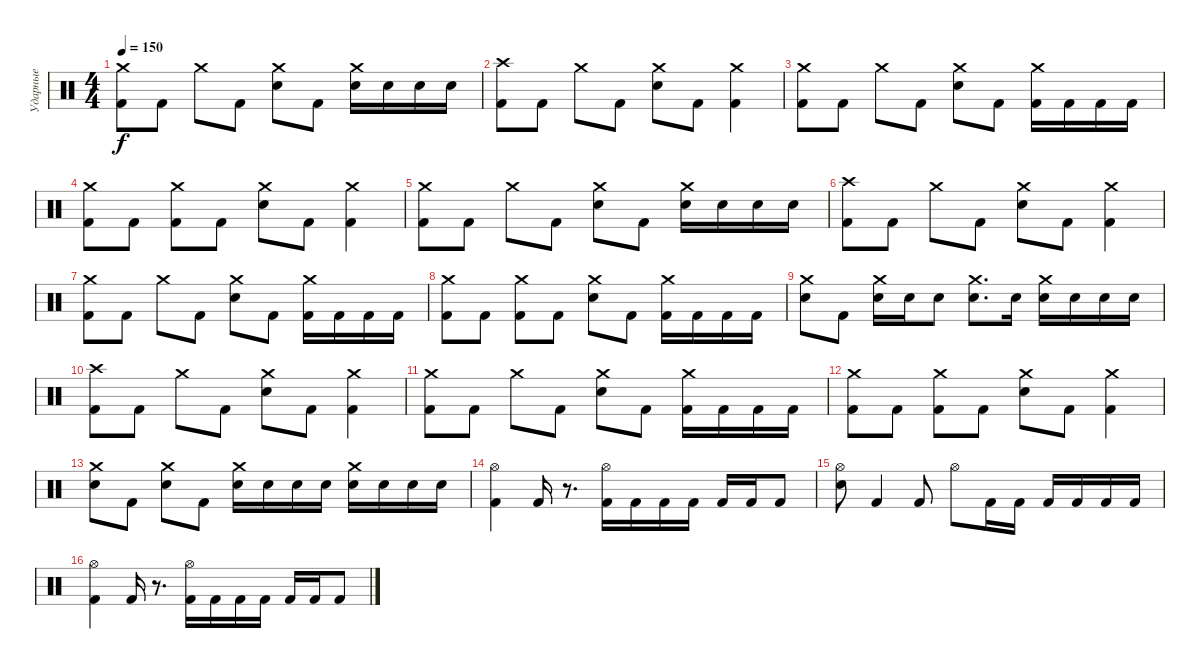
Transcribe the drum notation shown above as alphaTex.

\track ("Ударные" "Ударные") {instrument percussion}
\staff {score}
\articulation defaults
\ts (4 4)
\tempo 150
\clef neutral
\ks c
("Crash medium (hit)" "Kick (hit) 2").8{dy f} "Kick (hit) 2".8 "Crash medium (hit)".8 "Kick (hit) 2".8 ("Crash medium (hit)" "Electric Snare (hit)").8 "Kick (hit) 2".8 ("Crash medium (hit)" "Electric Snare (hit)").16 "Electric Snare (hit)".16 "Electric Snare (hit)".16 "Electric Snare (hit)".16 |
("Crash high (hit)" "Kick (hit) 2").8 "Kick (hit) 2".8 "Crash medium (hit)".8 "Kick (hit) 2".8 ("Crash medium (hit)" "Electric Snare (hit)").8 "Kick (hit) 2".8 ("Crash medium (hit)" "Kick (hit) 2").4 |
("Crash medium (hit)" "Kick (hit) 2").8 "Kick (hit) 2".8 "Crash medium (hit)".8 "Kick (hit) 2".8 ("Crash medium (hit)" "Electric Snare (hit)").8 "Kick (hit) 2".8 ("Crash medium (hit)" "Kick (hit) 2").16 "Kick (hit) 2".16 "Kick (hit) 2".16 "Kick (hit) 2".16 |
("Crash medium (hit)" "Kick (hit) 2").8 "Kick (hit) 2".8 ("Crash medium (hit)" "Kick (hit) 2").8 "Kick (hit) 2".8 ("Crash medium (hit)" "Electric Snare (hit)").8 "Kick (hit) 2".8 ("Crash medium (hit)" "Kick (hit) 2").4 |
("Crash medium (hit)" "Kick (hit) 2").8 "Kick (hit) 2".8 "Crash medium (hit)".8 "Kick (hit) 2".8 ("Crash medium (hit)" "Electric Snare (hit)").8 "Kick (hit) 2".8 ("Crash medium (hit)" "Electric Snare (hit)").16 "Electric Snare (hit)".16 "Electric Snare (hit)".16 "Electric Snare (hit)".16 |
("Crash high (hit)" "Kick (hit) 2").8 "Kick (hit) 2".8 "Crash medium (hit)".8 "Kick (hit) 2".8 ("Crash medium (hit)" "Electric Snare (hit)").8 "Kick (hit) 2".8 ("Crash medium (hit)" "Kick (hit) 2").4 |
("Crash medium (hit)" "Kick (hit) 2").8 "Kick (hit) 2".8 "Crash medium (hit)".8 "Kick (hit) 2".8 ("Crash medium (hit)" "Electric Snare (hit)").8 "Kick (hit) 2".8 ("Crash medium (hit)" "Kick (hit) 2").16 "Kick (hit) 2".16 "Kick (hit) 2".16 "Kick (hit) 2".16 |
("Crash medium (hit)" "Kick (hit) 2").8 "Kick (hit) 2".8 ("Crash medium (hit)" "Kick (hit) 2").8 "Kick (hit) 2".8 ("Crash medium (hit)" "Electric Snare (hit)").8 "Kick (hit) 2".8 ("Crash medium (hit)" "Kick (hit) 2").16 "Kick (hit) 2".16 "Kick (hit) 2".16 "Kick (hit) 2".16 |
("Crash medium (hit)" "Electric Snare (hit)").8 "Kick (hit) 2".8 ("Crash medium (hit)" "Electric Snare (hit)").16 "Electric Snare (hit)".16 "Electric Snare (hit)".8 ("Crash medium (hit)" "Electric Snare (hit)").8{d} "Electric Snare (hit)".16 ("Crash medium (hit)" "Electric Snare (hit)").16 "Electric Snare (hit)".16 "Electric Snare (hit)".16 "Electric Snare (hit)".16 |
("Crash high (hit)" "Kick (hit) 2").8 "Kick (hit) 2".8 "Crash medium (hit)".8 "Kick (hit) 2".8 ("Crash medium (hit)" "Electric Snare (hit)").8 "Kick (hit) 2".8 ("Crash medium (hit)" "Kick (hit) 2").4 |
("Crash medium (hit)" "Kick (hit) 2").8 "Kick (hit) 2".8 "Crash medium (hit)".8 "Kick (hit) 2".8 ("Crash medium (hit)" "Electric Snare (hit)").8 "Kick (hit) 2".8 ("Crash medium (hit)" "Kick (hit) 2").16 "Kick (hit) 2".16 "Kick (hit) 2".16 "Kick (hit) 2".16 |
("Crash medium (hit)" "Kick (hit) 2").8 "Kick (hit) 2".8 ("Crash medium (hit)" "Kick (hit) 2").8 "Kick (hit) 2".8 ("Crash medium (hit)" "Electric Snare (hit)").8 "Kick (hit) 2".8 ("Crash medium (hit)" "Kick (hit) 2").4 |
("Crash medium (hit)" "Electric Snare (hit)").8 "Kick (hit) 2".8 ("Crash medium (hit)" "Electric Snare (hit)").8 "Kick (hit) 2".8 ("Crash medium (hit)" "Electric Snare (hit)").16 "Electric Snare (hit)".16 "Electric Snare (hit)".16 "Electric Snare (hit)".16 ("Crash medium (hit)" "Electric Snare (hit)").16 "Electric Snare (hit)".16 "Electric Snare (hit)".16 "Electric Snare (hit)".16 |
("Hi-Hat (open)" "Kick (hit) 2").4 "Kick (hit) 2".16 r.8{d} ("Hi-Hat (open)" "Kick (hit) 2").16 "Kick (hit) 2".16 "Kick (hit) 2".16 "Kick (hit) 2".16 "Kick (hit) 2".16 "Kick (hit) 2".16 "Kick (hit) 2".8 |
("Hi-Hat (open)" "Electric Snare (hit)").8 "Kick (hit) 2".4 "Kick (hit) 2".8 "Hi-Hat (open)".8 "Kick (hit) 2".16 "Kick (hit) 2".16 "Kick (hit) 2".16 "Kick (hit) 2".16 "Kick (hit) 2".16 "Kick (hit) 2".16 |
("Hi-Hat (open)" "Kick (hit) 2").4 "Kick (hit) 2".16 r.8{d} ("Hi-Hat (open)" "Kick (hit) 2").16 "Kick (hit) 2".16 "Kick (hit) 2".16 "Kick (hit) 2".16 "Kick (hit) 2".16 "Kick (hit) 2".16 "Kick (hit) 2".8
